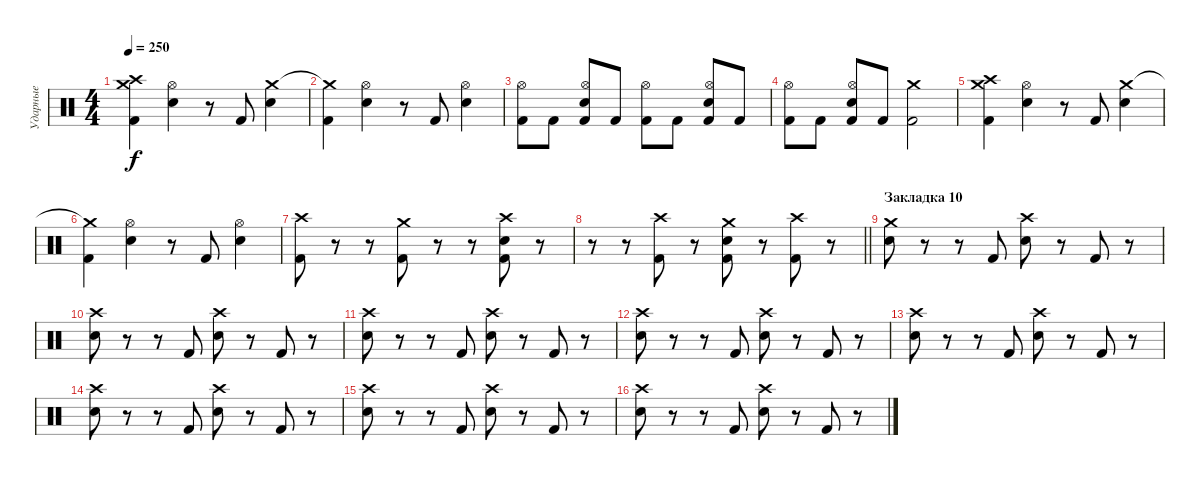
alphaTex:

\track ("Ударные" "Ударные") {instrument percussion}
\staff {score}
\articulation defaults
\ts (4 4)
\tempo 250
\clef neutral
\ks c
("Crash medium (hit)" "Crash high (hit)" "Kick (hit) 2").4{dy f} ("Hi-Hat (open)" "Electric Snare (hit)").4 r.8 "Kick (hit) 2".8 ("Crash medium (hit)" "Electric Snare (hit)").4 |
("Crash medium (hit)"{t} "Kick (hit) 2").4 ("Hi-Hat (open)" "Electric Snare (hit)").4 r.8 "Kick (hit) 2".8 ("Hi-Hat (open)" "Electric Snare (hit)").4 |
("Hi-Hat (open)" "Kick (hit) 2").8 "Kick (hit) 2".8 ("Hi-Hat (open)" "Electric Snare (hit)" "Kick (hit) 2").8 "Kick (hit) 2".8 ("Hi-Hat (open)" "Kick (hit) 2").8 "Kick (hit) 2".8 ("Hi-Hat (open)" "Electric Snare (hit)" "Kick (hit) 2").8 "Kick (hit) 2".8 |
("Hi-Hat (open)" "Kick (hit) 2").8 "Kick (hit) 2".8 ("Hi-Hat (open)" "Electric Snare (hit)" "Kick (hit) 2").8 "Kick (hit) 2".8 ("Crash medium (hit)" "Kick (hit) 2").2 |
("Crash medium (hit)" "Crash high (hit)" "Kick (hit) 2").4 ("Hi-Hat (open)" "Electric Snare (hit)").4 r.8 "Kick (hit) 2".8 ("Crash medium (hit)" "Electric Snare (hit)").4 |
("Crash medium (hit)"{t} "Kick (hit) 2").4 ("Hi-Hat (open)" "Electric Snare (hit)").4 r.8 "Kick (hit) 2".8 ("Hi-Hat (open)" "Electric Snare (hit)").4 |
("Crash high (hit)" "Kick (hit) 2").8 r.8 r.8 ("Crash medium (hit)" "Kick (hit) 2").8 r.8 r.8 ("Crash high (hit)" "Electric Snare (hit)" "Kick (hit) 2").8 r.8 |
\barLineRight lightlight
r.8 r.8 ("Crash high (hit)" "Kick (hit) 2").8 r.8 ("Crash medium (hit)" "Electric Snare (hit)" "Kick (hit) 2").8 r.8 ("Crash high (hit)" "Kick (hit) 2").8 r.8 |
\section ("" "Закладка 10")
("Crash medium (hit)" "Electric Snare (hit)").8 r.8 r.8 "Kick (hit) 2".8 ("Crash high (hit)" "Electric Snare (hit)").8 r.8 "Kick (hit) 2".8 r.8 |
("Crash high (hit)" "Electric Snare (hit)").8 r.8 r.8 "Kick (hit) 2".8 ("Crash high (hit)" "Electric Snare (hit)").8 r.8 "Kick (hit) 2".8 r.8 |
("Crash high (hit)" "Electric Snare (hit)").8 r.8 r.8 "Kick (hit) 2".8 ("Crash high (hit)" "Electric Snare (hit)").8 r.8 "Kick (hit) 2".8 r.8 |
("Crash high (hit)" "Electric Snare (hit)").8 r.8 r.8 "Kick (hit) 2".8 ("Crash high (hit)" "Electric Snare (hit)").8 r.8 "Kick (hit) 2".8 r.8 |
("Crash high (hit)" "Electric Snare (hit)").8 r.8 r.8 "Kick (hit) 2".8 ("Crash high (hit)" "Electric Snare (hit)").8 r.8 "Kick (hit) 2".8 r.8 |
("Crash high (hit)" "Electric Snare (hit)").8 r.8 r.8 "Kick (hit) 2".8 ("Crash high (hit)" "Electric Snare (hit)").8 r.8 "Kick (hit) 2".8 r.8 |
("Crash high (hit)" "Electric Snare (hit)").8 r.8 r.8 "Kick (hit) 2".8 ("Crash high (hit)" "Electric Snare (hit)").8 r.8 "Kick (hit) 2".8 r.8 |
("Crash high (hit)" "Electric Snare (hit)").8 r.8 r.8 "Kick (hit) 2".8 ("Crash high (hit)" "Electric Snare (hit)").8 r.8 "Kick (hit) 2".8 r.8
